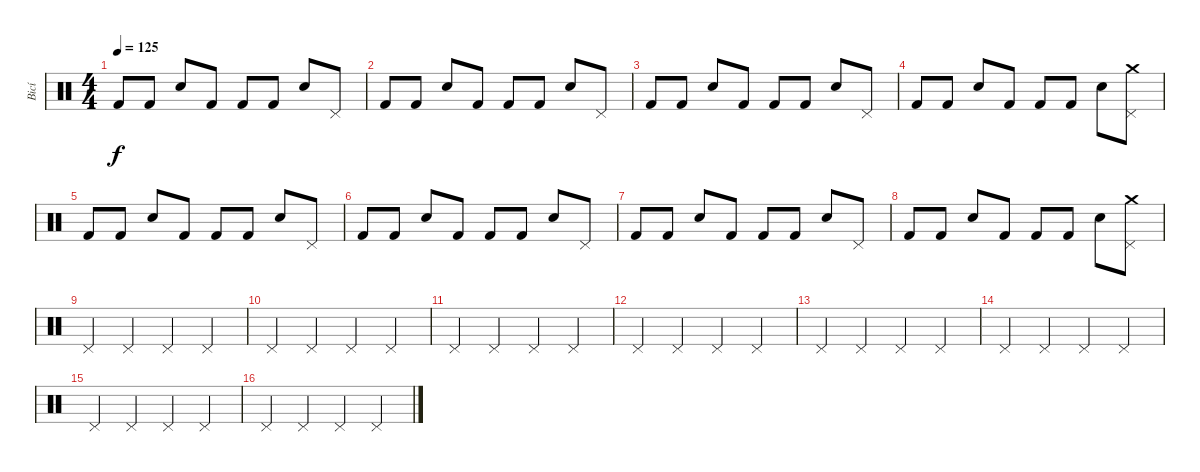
\track ("Bicí" "Bicí") {instrument percussion}
\staff {score}
\articulation defaults
\ts (4 4)
\tempo 125
\clef neutral
\ks c "Kick (hit) 2".8{dy f} "Kick (hit) 2".8 "Snare (hit) 2".8 "Kick (hit) 2".8 "Kick (hit) 2".8 "Kick (hit) 2".8 "Snare (hit) 2".8 "Pedal Hi-Hat (hit)".8
|
"Kick (hit) 2".8 "Kick (hit) 2".8 "Snare (hit) 2".8 "Kick (hit) 2".8 "Kick (hit) 2".8 "Kick (hit) 2".8 "Snare (hit) 2".8 "Pedal Hi-Hat (hit)".8 |
"Kick (hit) 2".8 "Kick (hit) 2".8 "Snare (hit) 2".8 "Kick (hit) 2".8 "Kick (hit) 2".8 "Kick (hit) 2".8 "Snare (hit) 2".8 "Pedal Hi-Hat (hit)".8 |
"Kick (hit) 2".8 "Kick (hit) 2".8 "Snare (hit) 2".8 "Kick (hit) 2".8 "Kick (hit) 2".8 "Kick (hit) 2".8 "Snare (hit) 2".8 ("Pedal Hi-Hat (hit)" "Crash medium (hit)").8 |
"Kick (hit) 2".8 "Kick (hit) 2".8 "Snare (hit) 2".8 "Kick (hit) 2".8 "Kick (hit) 2".8 "Kick (hit) 2".8 "Snare (hit) 2".8 "Pedal Hi-Hat (hit)".8 |
"Kick (hit) 2".8 "Kick (hit) 2".8 "Snare (hit) 2".8 "Kick (hit) 2".8 "Kick (hit) 2".8 "Kick (hit) 2".8 "Snare (hit) 2".8 "Pedal Hi-Hat (hit)".8 |
"Kick (hit) 2".8 "Kick (hit) 2".8 "Snare (hit) 2".8 "Kick (hit) 2".8 "Kick (hit) 2".8 "Kick (hit) 2".8 "Snare (hit) 2".8 "Pedal Hi-Hat (hit)".8 |
"Kick (hit) 2".8 "Kick (hit) 2".8 "Snare (hit) 2".8 "Kick (hit) 2".8 "Kick (hit) 2".8 "Kick (hit) 2".8 "Snare (hit) 2".8 ("Pedal Hi-Hat (hit)" "Crash medium (hit)").8 |
"Pedal Hi-Hat (hit)".4 "Pedal Hi-Hat (hit)".4 "Pedal Hi-Hat (hit)".4 "Pedal Hi-Hat (hit)".4 |
"Pedal Hi-Hat (hit)".4 "Pedal Hi-Hat (hit)".4 "Pedal Hi-Hat (hit)".4 "Pedal Hi-Hat (hit)".4 |
"Pedal Hi-Hat (hit)".4 "Pedal Hi-Hat (hit)".4 "Pedal Hi-Hat (hit)".4 "Pedal Hi-Hat (hit)".4 |
"Pedal Hi-Hat (hit)".4 "Pedal Hi-Hat (hit)".4 "Pedal Hi-Hat (hit)".4 "Pedal Hi-Hat (hit)".4 |
"Pedal Hi-Hat (hit)".4 "Pedal Hi-Hat (hit)".4 "Pedal Hi-Hat (hit)".4 "Pedal Hi-Hat (hit)".4 |
"Pedal Hi-Hat (hit)".4 "Pedal Hi-Hat (hit)".4 "Pedal Hi-Hat (hit)".4 "Pedal Hi-Hat (hit)".4 |
"Pedal Hi-Hat (hit)".4 "Pedal Hi-Hat (hit)".4 "Pedal Hi-Hat (hit)".4 "Pedal Hi-Hat (hit)".4 |
"Pedal Hi-Hat (hit)".4 "Pedal Hi-Hat (hit)".4 "Pedal Hi-Hat (hit)".4 "Pedal Hi-Hat (hit)".4
